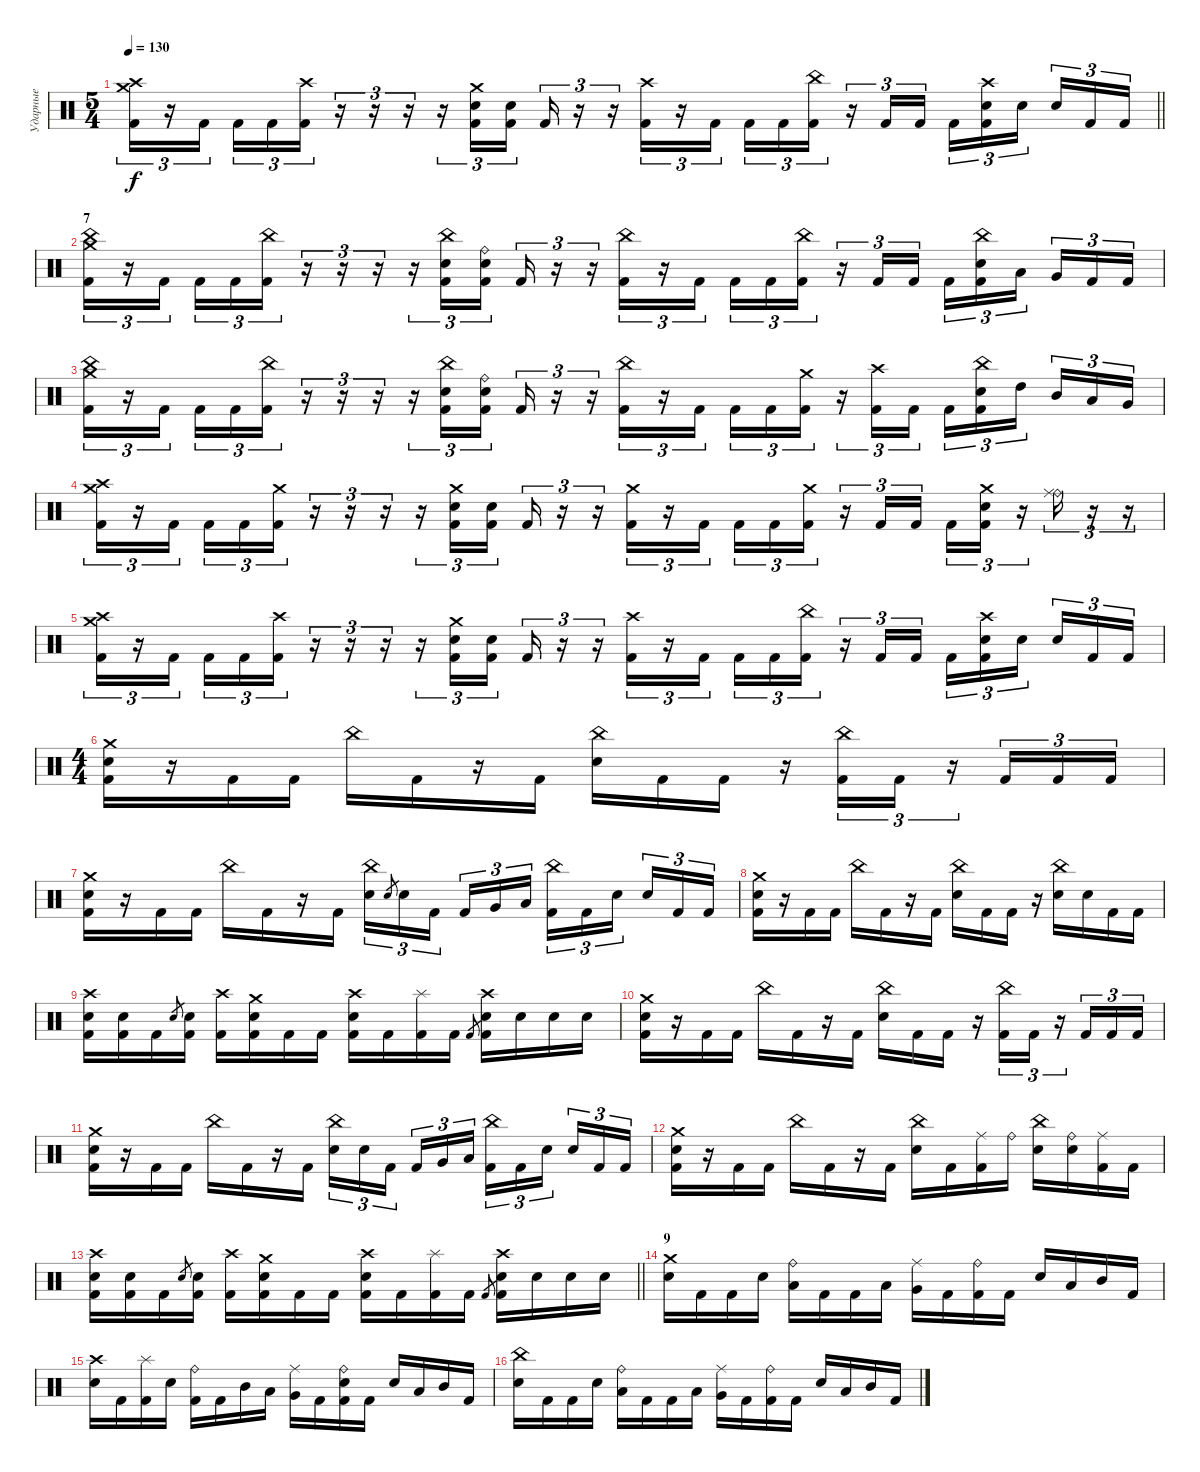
\track ("Ударные" "Ударные") {instrument percussion}
\staff {score}
\articulation defaults
\ts (5 4)
\tempo 130
\clef neutral
\barLineRight lightlight
\ks c
("Crash high (hit)" "Crash medium (hit)" "Kick (hit) 2").16{tu (3 2) dy f} r.16{tu (3 2)} "Kick (hit) 2".16{tu (3 2) beam splitsecondary} "Kick (hit) 2".16{tu (3 2)} "Kick (hit) 2".16{tu (3 2)} ("Crash high (hit)" "Kick (hit) 2").16{tu (3 2)} r.16{tu (3 2)} r.16{tu (3 2)} r.16{tu (3 2)} r.16{tu (3 2)} ("Crash medium (hit)" "Electric Snare (hit)" "Kick (hit) 2").16{tu (3 2)} ("Electric Snare (hit)" "Kick (hit) 2").16{tu (3 2)} "Kick (hit) 2".16{tu (3 2)} r.16{tu (3 2)} r.16{tu (3 2)} ("Crash high (hit)" "Kick (hit) 2").16{tu (3 2)} r.16{tu (3 2)} "Kick (hit) 2".16{tu (3 2)} "Kick (hit) 2".16{tu (3 2)} "Kick (hit) 2".16{tu (3 2)} ("China (hit)" "Kick (hit) 2").16{tu (3 2)} r.16{tu (3 2)} "Kick (hit) 2".16{tu (3 2)} "Kick (hit) 2".16{tu (3 2)} "Kick (hit) 2".16{tu (3 2)} ("Crash high (hit)" "Electric Snare (hit)" "Kick (hit) 2").16{tu (3 2)} "Electric Snare (hit)".16{tu (3 2) beam splitsecondary} "Electric Snare (hit)".16{tu (3 2)} "Kick (hit) 2".16{tu (3 2)} "Kick (hit) 2".16{tu (3 2)} |
\section ("" "7")
("China (hit)" "Crash medium (hit)" "Kick (hit) 2").16{tu (3 2)} r.16{tu (3 2)} "Kick (hit) 2".16{tu (3 2) beam splitsecondary} "Kick (hit) 2".16{tu (3 2)} "Kick (hit) 2".16{tu (3 2)} ("China (hit)" "Kick (hit) 2").16{tu (3 2)} r.16{tu (3 2)} r.16{tu (3 2)} r.16{tu (3 2)} r.16{tu (3 2)} ("China (hit)" "Electric Snare (hit)" "Kick (hit) 2").16{tu (3 2)} ("Ride (bell)" "Electric Snare (hit)" "Kick (hit) 2").16{tu (3 2)} "Kick (hit) 2".16{tu (3 2)} r.16{tu (3 2)} r.16{tu (3 2)} ("China (hit)" "Kick (hit) 2").16{tu (3 2)} r.16{tu (3 2)} "Kick (hit) 2".16{tu (3 2)} "Kick (hit) 2".16{tu (3 2)} "Kick (hit) 2".16{tu (3 2)} ("China (hit)" "Kick (hit) 2").16{tu (3 2)} r.16{tu (3 2)} "Kick (hit) 2".16{tu (3 2)} "Kick (hit) 2".16{tu (3 2)} "Kick (hit) 2".16{tu (3 2)} ("China (hit)" "Electric Snare (hit)" "Kick (hit) 2").16{tu (3 2)} "Low Tom (hit)".16{tu (3 2) beam splitsecondary} "Very Low Tom (hit)".16{tu (3 2)} "Kick (hit) 2".16{tu (3 2)} "Kick (hit) 2".16{tu (3 2)} |
("China (hit)" "Crash medium (hit)" "Kick (hit) 2").16{tu (3 2)} r.16{tu (3 2)} "Kick (hit) 2".16{tu (3 2) beam splitsecondary} "Kick (hit) 2".16{tu (3 2)} "Kick (hit) 2".16{tu (3 2)} ("China (hit)" "Kick (hit) 2").16{tu (3 2)} r.16{tu (3 2)} r.16{tu (3 2)} r.16{tu (3 2)} r.16{tu (3 2)} ("China (hit)" "Electric Snare (hit)" "Kick (hit) 2").16{tu (3 2)} ("Ride (bell)" "Electric Snare (hit)" "Kick (hit) 2").16{tu (3 2)} "Kick (hit) 2".16{tu (3 2)} r.16{tu (3 2)} r.16{tu (3 2)} ("China (hit)" "Kick (hit) 2").16{tu (3 2)} r.16{tu (3 2)} "Kick (hit) 2".16{tu (3 2)} "Kick (hit) 2".16{tu (3 2)} "Kick (hit) 2".16{tu (3 2)} ("Crash medium (hit)" "Kick (hit) 2").16{tu (3 2)} r.16{tu (3 2)} ("Crash high (hit)" "Kick (hit) 2").16{tu (3 2)} "Kick (hit) 2".16{tu (3 2)} "Kick (hit) 2".16{tu (3 2)} ("China (hit)" "Electric Snare (hit)" "Kick (hit) 2").16{tu (3 2)} "High Tom (hit)".16{tu (3 2) beam splitsecondary} "Mid Tom (hit)".16{tu (3 2)} "Low Tom (hit)".16{tu (3 2)} "Very Low Tom (hit)".16{tu (3 2)} |
("Crash high (hit)" "Crash medium (hit)" "Kick (hit) 2").16{tu (3 2)} r.16{tu (3 2)} "Kick (hit) 2".16{tu (3 2) beam splitsecondary} "Kick (hit) 2".16{tu (3 2)} "Kick (hit) 2".16{tu (3 2)} ("Crash medium (hit)" "Kick (hit) 2").16{tu (3 2)} r.16{tu (3 2)} r.16{tu (3 2)} r.16{tu (3 2)} r.16{tu (3 2)} ("Crash medium (hit)" "Electric Snare (hit)" "Kick (hit) 2").16{tu (3 2)} ("Electric Snare (hit)" "Kick (hit) 2").16{tu (3 2)} "Kick (hit) 2".16{tu (3 2)} r.16{tu (3 2)} r.16{tu (3 2)} ("Crash medium (hit)" "Kick (hit) 2").16{tu (3 2)} r.16{tu (3 2)} "Kick (hit) 2".16{tu (3 2)} "Kick (hit) 2".16{tu (3 2)} "Kick (hit) 2".16{tu (3 2)} ("Crash medium (hit)" "Kick (hit) 2").16{tu (3 2)} r.16{tu (3 2)} "Kick (hit) 2".16{tu (3 2)} "Kick (hit) 2".16{tu (3 2)} "Kick (hit) 2".16{tu (3 2)} ("Crash medium (hit)" "Electric Snare (hit)" "Kick (hit) 2").16{tu (3 2)} r.16{tu (3 2)} ("Ride (bell)" "Ride (middle)").16{tu (3 2)} r.16{tu (3 2)} r.16{tu (3 2)} |
("Crash high (hit)" "Crash medium (hit)" "Kick (hit) 2").16{tu (3 2)} r.16{tu (3 2)} "Kick (hit) 2".16{tu (3 2) beam splitsecondary} "Kick (hit) 2".16{tu (3 2)} "Kick (hit) 2".16{tu (3 2)} ("Crash high (hit)" "Kick (hit) 2").16{tu (3 2)} r.16{tu (3 2)} r.16{tu (3 2)} r.16{tu (3 2)} r.16{tu (3 2)} ("Crash medium (hit)" "Electric Snare (hit)" "Kick (hit) 2").16{tu (3 2)} ("Electric Snare (hit)" "Kick (hit) 2").16{tu (3 2)} "Kick (hit) 2".16{tu (3 2)} r.16{tu (3 2)} r.16{tu (3 2)} ("Crash high (hit)" "Kick (hit) 2").16{tu (3 2)} r.16{tu (3 2)} "Kick (hit) 2".16{tu (3 2)} "Kick (hit) 2".16{tu (3 2)} "Kick (hit) 2".16{tu (3 2)} ("China (hit)" "Kick (hit) 2").16{tu (3 2)} r.16{tu (3 2)} "Kick (hit) 2".16{tu (3 2)} "Kick (hit) 2".16{tu (3 2)} "Kick (hit) 2".16{tu (3 2)} ("Crash high (hit)" "Electric Snare (hit)" "Kick (hit) 2").16{tu (3 2)} "Electric Snare (hit)".16{tu (3 2) beam splitsecondary} "Electric Snare (hit)".16{tu (3 2)} "Kick (hit) 2".16{tu (3 2)} "Kick (hit) 2".16{tu (3 2)} |
\ts (4 4)
("Crash medium (hit)" "Electric Snare (hit)" "Kick (hit) 2").16 r.16 "Kick (hit) 2".16 "Kick (hit) 2".16 "China (hit)".16 "Kick (hit) 2".16 r.16 "Kick (hit) 2".16 ("China (hit)" "Electric Snare (hit)").16 "Kick (hit) 2".16 "Kick (hit) 2".16 r.16 ("China (hit)" "Kick (hit) 2").16{tu (3 2)} "Kick (hit) 2".16{tu (3 2)} r.16{tu (3 2)} "Kick (hit) 2".16{tu (3 2)} "Kick (hit) 2".16{tu (3 2)} "Kick (hit) 2".16{tu (3 2)} |
("Crash medium (hit)" "Electric Snare (hit)" "Kick (hit) 2").16 r.16 "Kick (hit) 2".16 "Kick (hit) 2".16 "China (hit)".16 "Kick (hit) 2".16 r.16 "Kick (hit) 2".16 ("China (hit)" "Electric Snare (hit)").16{tu (3 2)} "Electric Snare (hit)".8{gr} "Electric Snare (hit)".16{tu (3 2)} "Kick (hit) 2".16{tu (3 2) beam splitsecondary} "Kick (hit) 2".16{tu (3 2)} "Very Low Tom (hit)".16{tu (3 2)} "Low Tom (hit)".16{tu (3 2)} ("China (hit)" "Kick (hit) 2").16{tu (3 2)} "Kick (hit) 2".16{tu (3 2)} "Electric Snare (hit)".16{tu (3 2) beam splitsecondary} "Electric Snare (hit)".16{tu (3 2)} "Kick (hit) 2".16{tu (3 2)} "Kick (hit) 2".16{tu (3 2)} |
("Crash medium (hit)" "Electric Snare (hit)" "Kick (hit) 2").16 r.16 "Kick (hit) 2".16 "Kick (hit) 2".16 "China (hit)".16 "Kick (hit) 2".16 r.16 "Kick (hit) 2".16 ("China (hit)" "Electric Snare (hit)").16 "Kick (hit) 2".16 "Kick (hit) 2".16 r.16 ("China (hit)" "Electric Snare (hit)").16 "Electric Snare (hit)".16 "Kick (hit) 2".16 "Kick (hit) 2".16 |
("Crash high (hit)" "Electric Snare (hit)" "Kick (hit) 2").16 ("Electric Snare (hit)" "Kick (hit) 2").16 "Kick (hit) 2".16 "Electric Snare (hit)".8{gr} ("Electric Snare (hit)" "Kick (hit) 2").16 ("Crash high (hit)" "Kick (hit) 2").16 ("Crash medium (hit)" "Electric Snare (hit)" "Kick (hit) 2").16 "Kick (hit) 2".16 "Kick (hit) 2".16 ("Crash high (hit)" "Electric Snare (hit)" "Kick (hit) 2").16 "Kick (hit) 2".16 ("Splash (hit)" "Kick (hit) 2").16 "Kick (hit) 2".16 "Kick (hit) 2".8{gr} ("Crash high (hit)" "Electric Snare (hit)" "Kick (hit) 2").16 "Electric Snare (hit)".16 "Electric Snare (hit)".16 "Electric Snare (hit)".16 |
("Crash medium (hit)" "Electric Snare (hit)" "Kick (hit) 2").16 r.16 "Kick (hit) 2".16 "Kick (hit) 2".16 "China (hit)".16 "Kick (hit) 2".16 r.16 "Kick (hit) 2".16 ("China (hit)" "Electric Snare (hit)").16 "Kick (hit) 2".16 "Kick (hit) 2".16 r.16 ("China (hit)" "Kick (hit) 2").16{tu (3 2)} "Kick (hit) 2".16{tu (3 2)} r.16{tu (3 2)} "Kick (hit) 2".16{tu (3 2)} "Kick (hit) 2".16{tu (3 2)} "Kick (hit) 2".16{tu (3 2)} |
("Crash medium (hit)" "Electric Snare (hit)" "Kick (hit) 2").16 r.16 "Kick (hit) 2".16 "Kick (hit) 2".16 "China (hit)".16 "Kick (hit) 2".16 r.16 "Kick (hit) 2".16 ("China (hit)" "Electric Snare (hit)").16{tu (3 2)} "Electric Snare (hit)".16{tu (3 2)} "Kick (hit) 2".16{tu (3 2) beam splitsecondary} "Kick (hit) 2".16{tu (3 2)} "Very Low Tom (hit)".16{tu (3 2)} "Low Tom (hit)".16{tu (3 2)} ("China (hit)" "Kick (hit) 2").16{tu (3 2)} "Kick (hit) 2".16{tu (3 2)} "Electric Snare (hit)".16{tu (3 2) beam splitsecondary} "Electric Snare (hit)".16{tu (3 2)} "Kick (hit) 2".16{tu (3 2)} "Kick (hit) 2".16{tu (3 2)} |
("Crash medium (hit)" "Electric Snare (hit)" "Kick (hit) 2").16 r.16 "Kick (hit) 2".16 "Kick (hit) 2".16 "China (hit)".16 "Kick (hit) 2".16 r.16 "Kick (hit) 2".16 ("China (hit)" "Electric Snare (hit)").16 "Kick (hit) 2".16 ("Ride (middle)" "Kick (hit) 2").16 "Ride (bell)".16 ("China (hit)" "Electric Snare (hit)").16 ("Ride (bell)" "Electric Snare (hit)").16 ("Ride (middle)" "Kick (hit) 2").16 "Kick (hit) 2".16 |
\barLineRight lightlight
("Crash high (hit)" "Electric Snare (hit)" "Kick (hit) 2").16 ("Electric Snare (hit)" "Kick (hit) 2").16 "Kick (hit) 2".16 "Electric Snare (hit)".8{gr} ("Electric Snare (hit)" "Kick (hit) 2").16 ("Crash high (hit)" "Kick (hit) 2").16 ("Crash medium (hit)" "Electric Snare (hit)" "Kick (hit) 2").16 "Kick (hit) 2".16 "Kick (hit) 2".16 ("Crash high (hit)" "Electric Snare (hit)" "Kick (hit) 2").16 "Kick (hit) 2".16 ("Splash (hit)" "Kick (hit) 2").16 "Kick (hit) 2".16 "Kick (hit) 2".8{gr} ("Crash high (hit)" "Electric Snare (hit)" "Kick (hit) 2").16 "Electric Snare (hit)".16 "Electric Snare (hit)".16 "Electric Snare (hit)".16 |
\section ("" "9")
("Crash medium (hit)" "Electric Snare (hit)").16 "Kick (hit) 2".16 "Kick (hit) 2".16 "Electric Snare (hit)".16 ("Ride (bell)" "Low Tom (hit)").16 "Kick (hit) 2".16 "Kick (hit) 2".16 "Low Tom (hit)".16 ("Ride (middle)" "Very Low Tom (hit)").16 "Kick (hit) 2".16 ("Ride (bell)" "Kick (hit) 2").16 "Kick (hit) 2".16 "Electric Snare (hit)".16 "Low Tom (hit)".16 "Mid Tom (hit)".16 "Kick (hit) 2".16 |
("Crash high (hit)" "Electric Snare (hit)").16 "Kick (hit) 2".16 ("Splash (hit)" "Kick (hit) 2").16 "Electric Snare (hit)".16 ("Ride (bell)" "Kick (hit) 2").16 "Kick (hit) 2".16 "Mid Tom (hit)".16 "Low Tom (hit)".16 ("Ride (middle)" "Very Low Tom (hit)").16 "Kick (hit) 2".16 ("Ride (bell)" "Electric Snare (hit)" "Kick (hit) 2").16 "Kick (hit) 2".16 "Electric Snare (hit)".16 "Low Tom (hit)".16 "Mid Tom (hit)".16 "Kick (hit) 2".16 |
("China (hit)" "Electric Snare (hit)").16 "Kick (hit) 2".16 "Kick (hit) 2".16 "Electric Snare (hit)".16 ("Ride (bell)" "Low Tom (hit)").16 "Kick (hit) 2".16 "Kick (hit) 2".16 "Low Tom (hit)".16 ("Ride (middle)" "Very Low Tom (hit)").16 "Kick (hit) 2".16 ("Ride (bell)" "Kick (hit) 2").16 "Kick (hit) 2".16 "Electric Snare (hit)".16 "Low Tom (hit)".16 "Mid Tom (hit)".16 "Kick (hit) 2".16
